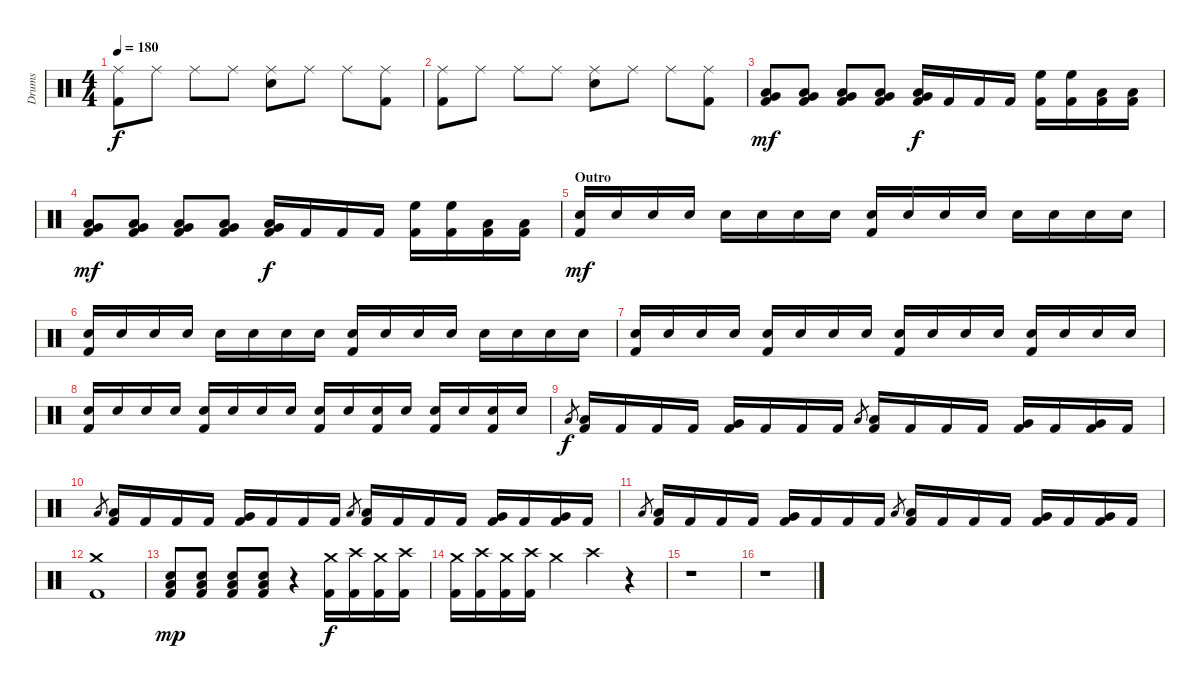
\track ("Drums" "Drums") {instrument percussion}
\staff {score}
\articulation defaults
\ts (4 4)
\tempo 180
\clef neutral
\ks c
("Kick (hit) 2" "Ride (middle)").8{dy f} "Ride (middle)".8 "Ride (middle)".8 "Ride (middle)".8 ("Electric Snare (hit)" "Ride (middle)").8 "Ride (middle)".8 "Ride (middle)".8 ("Kick (hit) 2" "Ride (middle)").8 |
("Kick (hit) 2" "Ride (middle)").8 "Ride (middle)".8 "Ride (middle)".8 "Ride (middle)".8 ("Electric Snare (hit)" "Ride (middle)").8 "Ride (middle)".8 "Ride (middle)".8 ("Kick (hit) 2" "Ride (middle)").8 |
("Kick (hit) 2" "Very Low Tom (hit)" "Low Floor Tom (hit)").8{dy mf} ("Kick (hit) 2" "Very Low Tom (hit)" "Low Floor Tom (hit)").8 ("Kick (hit) 2" "Very Low Tom (hit)" "Low Floor Tom (hit)").8 ("Kick (hit) 2" "Very Low Tom (hit)" "Low Floor Tom (hit)").8 ("Kick (hit) 2" "Very Low Tom (hit)" "Low Floor Tom (hit)").16{dy f} "Kick (hit) 2".16 "Kick (hit) 2".16 "Kick (hit) 2".16 ("Kick (hit) 2" "High Floor Tom (hit)").16 ("Kick (hit) 2" "High Floor Tom (hit)").16 ("Kick (hit) 2" "Low Tom (hit)").16 ("Kick (hit) 2" "Low Tom (hit)").16 |
("Kick (hit) 2" "Very Low Tom (hit)" "Low Floor Tom (hit)").8{dy mf} ("Kick (hit) 2" "Very Low Tom (hit)" "Low Floor Tom (hit)").8 ("Kick (hit) 2" "Very Low Tom (hit)" "Low Floor Tom (hit)").8 ("Kick (hit) 2" "Very Low Tom (hit)" "Low Floor Tom (hit)").8 ("Kick (hit) 2" "Very Low Tom (hit)" "Low Floor Tom (hit)").16{dy f} "Kick (hit) 2".16 "Kick (hit) 2".16 "Kick (hit) 2".16 ("Kick (hit) 2" "High Floor Tom (hit)").16 ("Kick (hit) 2" "High Floor Tom (hit)").16 ("Kick (hit) 2" "Low Tom (hit)").16 ("Kick (hit) 2" "Low Tom (hit)").16 |
\section ("" "Outro")
("Kick (hit) 2" "Electric Snare (hit)").16{dy mf} "Electric Snare (hit)".16 "Electric Snare (hit)".16 "Electric Snare (hit)".16 "Electric Snare (hit)".16 "Electric Snare (hit)".16 "Electric Snare (hit)".16 "Electric Snare (hit)".16 ("Kick (hit) 2" "Electric Snare (hit)").16 "Electric Snare (hit)".16 "Electric Snare (hit)".16 "Electric Snare (hit)".16 "Electric Snare (hit)".16 "Electric Snare (hit)".16 "Electric Snare (hit)".16 "Electric Snare (hit)".16 |
("Kick (hit) 2" "Electric Snare (hit)").16 "Electric Snare (hit)".16 "Electric Snare (hit)".16 "Electric Snare (hit)".16 "Electric Snare (hit)".16 "Electric Snare (hit)".16 "Electric Snare (hit)".16 "Electric Snare (hit)".16 ("Kick (hit) 2" "Electric Snare (hit)").16 "Electric Snare (hit)".16 "Electric Snare (hit)".16 "Electric Snare (hit)".16 "Electric Snare (hit)".16 "Electric Snare (hit)".16 "Electric Snare (hit)".16 "Electric Snare (hit)".16 |
("Kick (hit) 2" "Electric Snare (hit)").16 "Electric Snare (hit)".16 "Electric Snare (hit)".16 "Electric Snare (hit)".16 ("Kick (hit) 2" "Electric Snare (hit)").16 "Electric Snare (hit)".16 "Electric Snare (hit)".16 "Electric Snare (hit)".16 ("Kick (hit) 2" "Electric Snare (hit)").16 "Electric Snare (hit)".16 "Electric Snare (hit)".16 "Electric Snare (hit)".16 ("Kick (hit) 2" "Electric Snare (hit)").16 "Electric Snare (hit)".16 "Electric Snare (hit)".16 "Electric Snare (hit)".16 |
("Kick (hit) 2" "Electric Snare (hit)").16 "Electric Snare (hit)".16 "Electric Snare (hit)".16 "Electric Snare (hit)".16 ("Kick (hit) 2" "Electric Snare (hit)").16 "Electric Snare (hit)".16 "Electric Snare (hit)".16 "Electric Snare (hit)".16 ("Kick (hit) 2" "Electric Snare (hit)").16 "Electric Snare (hit)".16 ("Kick (hit) 2" "Electric Snare (hit)").16 "Electric Snare (hit)".16 ("Kick (hit) 2" "Electric Snare (hit)").16 "Electric Snare (hit)".16 ("Kick (hit) 2" "Electric Snare (hit)").16 "Electric Snare (hit)".16 |
"Low Floor Tom (hit)".8{gr dy f} ("Kick (hit) 2" "Low Floor Tom (hit)").16 "Kick (hit) 2".16 "Kick (hit) 2".16 "Kick (hit) 2".16 ("Kick (hit) 2" "Very Low Tom (hit)").16 "Kick (hit) 2".16 "Kick (hit) 2".16 "Kick (hit) 2".16 "Low Floor Tom (hit)".8{gr} ("Kick (hit) 2" "Low Floor Tom (hit)").16 "Kick (hit) 2".16 "Kick (hit) 2".16 "Kick (hit) 2".16 ("Kick (hit) 2" "Very Low Tom (hit)").16 "Kick (hit) 2".16 ("Kick (hit) 2" "Very Low Tom (hit)").16 "Kick (hit) 2".16 |
"Low Floor Tom (hit)".8{gr} ("Kick (hit) 2" "Low Floor Tom (hit)").16 "Kick (hit) 2".16 "Kick (hit) 2".16 "Kick (hit) 2".16 ("Kick (hit) 2" "Very Low Tom (hit)").16 "Kick (hit) 2".16 "Kick (hit) 2".16 "Kick (hit) 2".16 "Low Floor Tom (hit)".8{gr} ("Kick (hit) 2" "Low Floor Tom (hit)").16 "Kick (hit) 2".16 "Kick (hit) 2".16 "Kick (hit) 2".16 ("Kick (hit) 2" "Very Low Tom (hit)").16 "Kick (hit) 2".16 ("Kick (hit) 2" "Very Low Tom (hit)").16 "Kick (hit) 2".16 |
"Low Floor Tom (hit)".8{gr} ("Kick (hit) 2" "Low Floor Tom (hit)").16 "Kick (hit) 2".16 "Kick (hit) 2".16 "Kick (hit) 2".16 ("Kick (hit) 2" "Very Low Tom (hit)").16 "Kick (hit) 2".16 "Kick (hit) 2".16 "Kick (hit) 2".16 "Low Floor Tom (hit)".8{gr} ("Kick (hit) 2" "Low Floor Tom (hit)").16 "Kick (hit) 2".16 "Kick (hit) 2".16 "Kick (hit) 2".16 ("Kick (hit) 2" "Very Low Tom (hit)").16 "Kick (hit) 2".16 ("Kick (hit) 2" "Very Low Tom (hit)").16 "Kick (hit) 2".16 |
("Kick (hit) 2" "Crash medium (hit)").1 |
("Kick (hit) 2" "Low Floor Tom (hit)" "Electric Snare (hit)").8{dy mp} ("Kick (hit) 2" "Low Floor Tom (hit)" "Electric Snare (hit)").8 ("Kick (hit) 2" "Low Floor Tom (hit)" "Electric Snare (hit)").8 ("Kick (hit) 2" "Low Floor Tom (hit)" "Electric Snare (hit)").8 r.4 ("Kick (hit) 2" "Crash medium (hit)").16{dy f} ("Kick (hit) 2" "Crash high (hit)").16 ("Kick (hit) 2" "Crash medium (hit)").16 ("Kick (hit) 2" "Crash high (hit)").16 |
("Kick (hit) 2" "Crash medium (hit)").16 ("Kick (hit) 2" "Crash high (hit)").16 ("Kick (hit) 2" "Crash medium (hit)").16 ("Kick (hit) 2" "Crash high (hit)").16 "Crash medium (hit)".4 "Crash high (hit)".4 r.4 |
r.1 |
r.1
